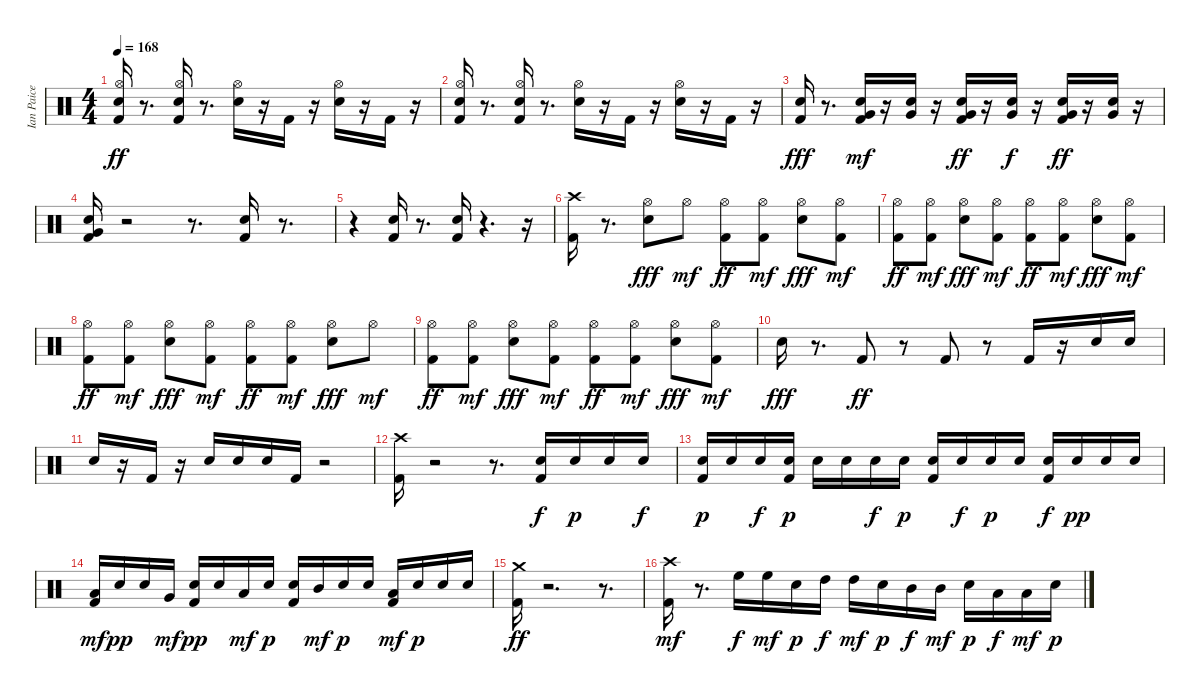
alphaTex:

\track ("Ian Paice" "Ian Paice") {instrument percussion}
\staff {score}
\articulation defaults
\ts (4 4)
\tempo 168
\clef neutral
\ks c
("Kick (hit) 2" "Hi-Hat (open)" "Electric Snare (hit)").16{dy ff} r.8{d} ("Hi-Hat (open)" "Electric Snare (hit)" "Kick (hit) 2").16 r.8{d} ("Hi-Hat (open)" "Electric Snare (hit)").16 r.16 "Kick (hit) 2".16 r.16 ("Hi-Hat (open)" "Electric Snare (hit)").16 r.16 "Kick (hit) 2".16 r.16 |
("Kick (hit) 2" "Hi-Hat (open)" "Electric Snare (hit)").16 r.8{d} ("Kick (hit) 2" "Hi-Hat (open)" "Electric Snare (hit)").16 r.8{d} ("Hi-Hat (open)" "Electric Snare (hit)").16 r.16 "Kick (hit) 2".16 r.16 ("Hi-Hat (open)" "Electric Snare (hit)").16 r.16 "Kick (hit) 2".16 r.16 |
("Kick (hit) 2" "Electric Snare (hit)").16{dy fff} r.8{d} ("Kick (hit) 2" "Electric Snare (hit)" "Very Low Tom (hit)").16{dy mf} r.16 ("Very Low Tom (hit)" "Electric Snare (hit)").16 r.16 ("Kick (hit) 2" "Electric Snare (hit)" "Very Low Tom (hit)").16{dy ff} r.16 ("Electric Snare (hit)" "Very Low Tom (hit)").16{dy f} r.16 ("Kick (hit) 2" "Electric Snare (hit)" "Very Low Tom (hit)").16{dy ff} r.16 ("Electric Snare (hit)" "Very Low Tom (hit)").16 r.16 |
("Kick (hit) 2" "Electric Snare (hit)" "Very Low Tom (hit)").16 r.2 r.8{d} ("Electric Snare (hit)" "Kick (hit) 2").16 r.8{d} |
r.4 ("Electric Snare (hit)" "Kick (hit) 2").16 r.8{d} ("Kick (hit) 2" "Electric Snare (hit)").16 r.4{d} r.16 |
("Kick (hit) 2" "Crash high (hit)").16 r.8{d} ("Hi-Hat (open)" "Electric Snare (hit)").8{dy fff} "Hi-Hat (open)".8{dy mf} ("Kick (hit) 2" "Hi-Hat (open)").8{dy ff} ("Kick (hit) 2" "Hi-Hat (open)").8{dy mf} ("Hi-Hat (open)" "Electric Snare (hit)").8{dy fff} ("Kick (hit) 2" "Hi-Hat (open)").8{dy mf} |
("Kick (hit) 2" "Hi-Hat (open)").8{dy ff} ("Kick (hit) 2" "Hi-Hat (open)").8{dy mf} ("Hi-Hat (open)" "Electric Snare (hit)").8{dy fff} ("Kick (hit) 2" "Hi-Hat (open)").8{dy mf} ("Kick (hit) 2" "Hi-Hat (open)").8{dy ff} ("Kick (hit) 2" "Hi-Hat (open)").8{dy mf} ("Hi-Hat (open)" "Electric Snare (hit)").8{dy fff} ("Kick (hit) 2" "Hi-Hat (open)").8{dy mf} |
("Kick (hit) 2" "Hi-Hat (open)").8{dy ff} ("Kick (hit) 2" "Hi-Hat (open)").8{dy mf} ("Hi-Hat (open)" "Electric Snare (hit)").8{dy fff} ("Kick (hit) 2" "Hi-Hat (open)").8{dy mf} ("Hi-Hat (open)" "Kick (hit) 2").8{dy ff} ("Kick (hit) 2" "Hi-Hat (open)").8{dy mf} ("Hi-Hat (open)" "Electric Snare (hit)").8{dy fff} "Hi-Hat (open)".8{dy mf} |
("Kick (hit) 2" "Hi-Hat (open)").8{dy ff} ("Kick (hit) 2" "Hi-Hat (open)").8{dy mf} ("Hi-Hat (open)" "Electric Snare (hit)").8{dy fff} ("Kick (hit) 2" "Hi-Hat (open)").8{dy mf} ("Kick (hit) 2" "Hi-Hat (open)").8{dy ff} ("Kick (hit) 2" "Hi-Hat (open)").8{dy mf} ("Hi-Hat (open)" "Electric Snare (hit)").8{dy fff} ("Kick (hit) 2" "Hi-Hat (open)").8{dy mf} |
"Electric Snare (hit)".16{dy fff} r.8{d} "Kick (hit) 2".8{dy ff} r.8 "Kick (hit) 2".8 r.8 "Kick (hit) 2".16 r.16 "Electric Snare (hit)".16 "Electric Snare (hit)".16 |
"Electric Snare (hit)".16 r.16 "Kick (hit) 2".16 r.16 "Electric Snare (hit)".16 "Electric Snare (hit)".16 "Electric Snare (hit)".16 "Kick (hit) 2".16 r.2 |
("Kick (hit) 2" "Crash high (hit)").16 r.2 r.8{d} ("Kick (hit) 2" "Electric Snare (hit)").16{dy f} "Electric Snare (hit)".16{dy p} "Electric Snare (hit)".16 "Electric Snare (hit)".16{dy f} |
("Electric Snare (hit)" "Kick (hit) 2").16{dy p} "Electric Snare (hit)".16 "Electric Snare (hit)".16{dy f} ("Electric Snare (hit)" "Kick (hit) 2").16{dy p} "Electric Snare (hit)".16 "Electric Snare (hit)".16 "Electric Snare (hit)".16{dy f} "Electric Snare (hit)".16{dy p} ("Kick (hit) 2" "Electric Snare (hit)").16 "Electric Snare (hit)".16{dy f} "Electric Snare (hit)".16{dy p} "Electric Snare (hit)".16 ("Kick (hit) 2" "Electric Snare (hit)").16{dy f} "Electric Snare (hit)".16{dy pp} "Electric Snare (hit)".16 "Electric Snare (hit)".16 |
("Kick (hit) 2" "Low Tom (hit)").16{dy mf} "Electric Snare (hit)".16{dy pp} "Electric Snare (hit)".16 "Very Low Tom (hit)".16{dy mf} ("Kick (hit) 2" "Electric Snare (hit)").16{dy pp} "Electric Snare (hit)".16 "Low Floor Tom (hit)".16{dy mf} "Electric Snare (hit)".16{dy p} ("Kick (hit) 2" "Electric Snare (hit)").16 "Mid Tom (hit)".16{dy mf} "Electric Snare (hit)".16{dy p} "Electric Snare (hit)".16 ("Kick (hit) 2" "Low Tom (hit)").16{dy mf} "Electric Snare (hit)".16{dy p} "Electric Snare (hit)".16 "Electric Snare (hit)".16 |
("Kick (hit) 2" "Crash medium (hit)").16{dy ff} r.2{d} r.8{d} |
("Kick (hit) 2" "Crash high (hit)").16{dy mf} r.8{d} "High Floor Tom (hit)".16{dy f} "High Floor Tom (hit)".16{dy mf} "Electric Snare (hit)".16{dy p} "High Tom (hit)".16{dy f} "High Tom (hit)".16{dy mf} "Electric Snare (hit)".16{dy p} "Mid Tom (hit)".16{dy f} "Mid Tom (hit)".16{dy mf} "Electric Snare (hit)".16{dy p} "Low Tom (hit)".16{dy f} "Low Tom (hit)".16{dy mf} "Electric Snare (hit)".16{dy p}
